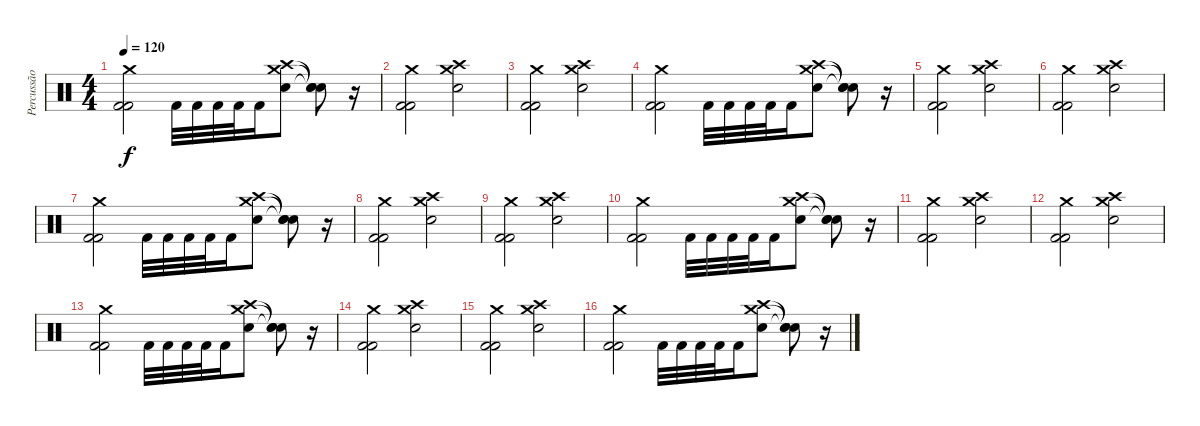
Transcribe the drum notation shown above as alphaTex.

\track ("Percussão" "Percussão") {instrument percussion}
\staff {score}
\articulation defaults
\ts (4 4)
\tempo 120
\clef neutral
\ks c
("Kick (hit) 2" "Kick (hit) 2" "Crash medium (hit)").2{dy f} "Kick (hit) 2".32 "Kick (hit) 2".32 "Kick (hit) 2".32 "Kick (hit) 2".32 "Kick (hit) 2".16 ("Crash medium (hit)" "Crash high (hit)" "Snare (hit) 2").8 ("Snare (hit)"{t} "Snare (hit)"{t} "Snare (hit)"{t}).8 r.16 |
("Kick (hit) 2" "Kick (hit) 2" "Crash medium (hit)").2 ("Crash high (hit)" "Crash medium (hit)" "Snare (hit) 2").2 |
("Kick (hit) 2" "Kick (hit) 2" "Crash medium (hit)").2 ("Crash high (hit)" "Crash medium (hit)" "Snare (hit) 2").2 |
("Kick (hit) 2" "Kick (hit) 2" "Crash medium (hit)").2 "Kick (hit) 2".32 "Kick (hit) 2".32 "Kick (hit) 2".32 "Kick (hit) 2".32 "Kick (hit) 2".16 ("Crash medium (hit)" "Crash high (hit)" "Snare (hit) 2").8 ("Snare (hit)"{t} "Snare (hit)"{t} "Snare (hit)"{t}).8 r.16 |
("Kick (hit) 2" "Kick (hit) 2" "Crash medium (hit)").2 ("Crash high (hit)" "Crash medium (hit)" "Snare (hit) 2").2 |
("Kick (hit) 2" "Kick (hit) 2" "Crash medium (hit)").2 ("Crash high (hit)" "Crash medium (hit)" "Snare (hit) 2").2 |
("Kick (hit) 2" "Kick (hit) 2" "Crash medium (hit)").2 "Kick (hit) 2".32 "Kick (hit) 2".32 "Kick (hit) 2".32 "Kick (hit) 2".32 "Kick (hit) 2".16 ("Crash medium (hit)" "Crash high (hit)" "Snare (hit) 2").8 ("Snare (hit)"{t} "Snare (hit)"{t} "Snare (hit)"{t}).8 r.16 |
("Kick (hit) 2" "Kick (hit) 2" "Crash medium (hit)").2 ("Crash high (hit)" "Crash medium (hit)" "Snare (hit) 2").2 |
("Kick (hit) 2" "Kick (hit) 2" "Crash medium (hit)").2 ("Crash high (hit)" "Crash medium (hit)" "Snare (hit) 2").2 |
("Kick (hit) 2" "Kick (hit) 2" "Crash medium (hit)").2 "Kick (hit) 2".32 "Kick (hit) 2".32 "Kick (hit) 2".32 "Kick (hit) 2".32 "Kick (hit) 2".16 ("Crash medium (hit)" "Crash high (hit)" "Snare (hit) 2").8 ("Snare (hit)"{t} "Snare (hit)"{t} "Snare (hit)"{t}).8 r.16 |
("Kick (hit) 2" "Kick (hit) 2" "Crash medium (hit)").2 ("Crash high (hit)" "Crash medium (hit)" "Snare (hit) 2").2 |
("Kick (hit) 2" "Kick (hit) 2" "Crash medium (hit)").2 ("Crash high (hit)" "Crash medium (hit)" "Snare (hit) 2").2 |
("Kick (hit) 2" "Kick (hit) 2" "Crash medium (hit)").2 "Kick (hit) 2".32 "Kick (hit) 2".32 "Kick (hit) 2".32 "Kick (hit) 2".32 "Kick (hit) 2".16 ("Crash medium (hit)" "Crash high (hit)" "Snare (hit) 2").8 ("Snare (hit)"{t} "Snare (hit)"{t} "Snare (hit)"{t}).8 r.16 |
("Kick (hit) 2" "Kick (hit) 2" "Crash medium (hit)").2 ("Crash high (hit)" "Crash medium (hit)" "Snare (hit) 2").2 |
("Kick (hit) 2" "Kick (hit) 2" "Crash medium (hit)").2 ("Crash high (hit)" "Crash medium (hit)" "Snare (hit) 2").2 |
("Kick (hit) 2" "Kick (hit) 2" "Crash medium (hit)").2 "Kick (hit) 2".32 "Kick (hit) 2".32 "Kick (hit) 2".32 "Kick (hit) 2".32 "Kick (hit) 2".16 ("Crash medium (hit)" "Crash high (hit)" "Snare (hit) 2").8 ("Snare (hit)"{t} "Snare (hit)"{t} "Snare (hit)"{t}).8 r.16
